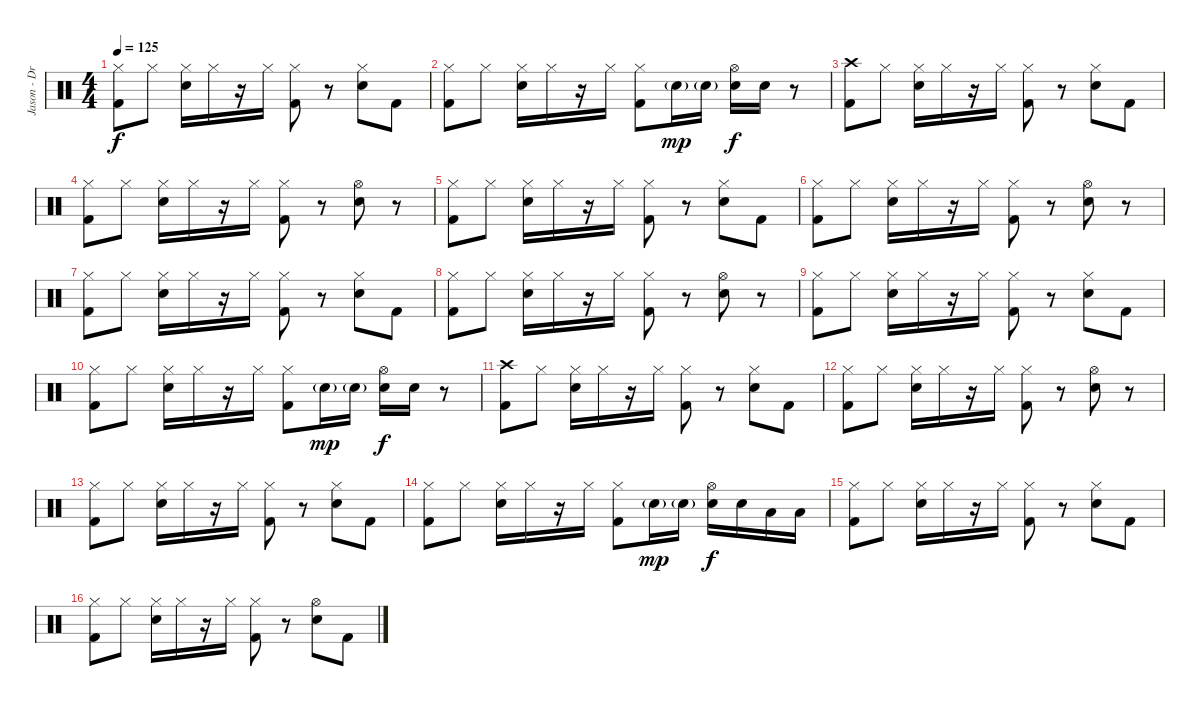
\track ("Jason - Drums" "Jason - Dr") {instrument percussion}
\staff {score}
\articulation defaults
\ts (4 4)
\tempo 125
\clef neutral
\ks c
("Hi-Hat (closed)" "Kick (hit) 2").8{dy f} "Hi-Hat (closed)".8 ("Hi-Hat (closed)" "Electric Snare (hit)").16 "Hi-Hat (closed)".16 r.16 "Hi-Hat (closed)".16 ("Hi-Hat (closed)" "Kick (hit) 2").8 r.8 ("Hi-Hat (closed)" "Electric Snare (hit)").8 "Kick (hit) 2".8 |
("Hi-Hat (closed)" "Kick (hit) 2").8 "Hi-Hat (closed)".8 ("Hi-Hat (closed)" "Electric Snare (hit)").16 "Hi-Hat (closed)".16 r.16 "Hi-Hat (closed)".16 ("Hi-Hat (closed)" "Kick (hit) 2").8 "Electric Snare (hit)"{g}.16{dy mp} "Electric Snare (hit)"{g}.16 ("Hi-Hat (open)" "Electric Snare (hit)").16{dy f} "Electric Snare (hit)".16 r.8 |
("Crash high (hit)" "Kick (hit) 2").8 "Hi-Hat (closed)".8 ("Hi-Hat (closed)" "Electric Snare (hit)").16 "Hi-Hat (closed)".16 r.16 "Hi-Hat (closed)".16 ("Hi-Hat (closed)" "Kick (hit) 2").8 r.8 ("Hi-Hat (closed)" "Electric Snare (hit)").8 "Kick (hit) 2".8 |
("Hi-Hat (closed)" "Kick (hit) 2").8 "Hi-Hat (closed)".8 ("Hi-Hat (closed)" "Electric Snare (hit)").16 "Hi-Hat (closed)".16 r.16 "Hi-Hat (closed)".16 ("Hi-Hat (closed)" "Kick (hit) 2").8 r.8 ("Hi-Hat (open)" "Electric Snare (hit)").8 r.8 |
("Hi-Hat (closed)" "Kick (hit) 2").8 "Hi-Hat (closed)".8 ("Hi-Hat (closed)" "Electric Snare (hit)").16 "Hi-Hat (closed)".16 r.16 "Hi-Hat (closed)".16 ("Hi-Hat (closed)" "Kick (hit) 2").8 r.8 ("Hi-Hat (closed)" "Electric Snare (hit)").8 "Kick (hit) 2".8 |
("Hi-Hat (closed)" "Kick (hit) 2").8 "Hi-Hat (closed)".8 ("Hi-Hat (closed)" "Electric Snare (hit)").16 "Hi-Hat (closed)".16 r.16 "Hi-Hat (closed)".16 ("Hi-Hat (closed)" "Kick (hit) 2").8 r.8 ("Hi-Hat (open)" "Electric Snare (hit)").8 r.8 |
("Hi-Hat (closed)" "Kick (hit) 2").8 "Hi-Hat (closed)".8 ("Hi-Hat (closed)" "Electric Snare (hit)").16 "Hi-Hat (closed)".16 r.16 "Hi-Hat (closed)".16 ("Hi-Hat (closed)" "Kick (hit) 2").8 r.8 ("Hi-Hat (closed)" "Electric Snare (hit)").8 "Kick (hit) 2".8 |
("Hi-Hat (closed)" "Kick (hit) 2").8 "Hi-Hat (closed)".8 ("Hi-Hat (closed)" "Electric Snare (hit)").16 "Hi-Hat (closed)".16 r.16 "Hi-Hat (closed)".16 ("Hi-Hat (closed)" "Kick (hit) 2").8 r.8 ("Hi-Hat (open)" "Electric Snare (hit)").8 r.8 |
("Hi-Hat (closed)" "Kick (hit) 2").8 "Hi-Hat (closed)".8 ("Hi-Hat (closed)" "Electric Snare (hit)").16 "Hi-Hat (closed)".16 r.16 "Hi-Hat (closed)".16 ("Hi-Hat (closed)" "Kick (hit) 2").8 r.8 ("Hi-Hat (closed)" "Electric Snare (hit)").8 "Kick (hit) 2".8 |
("Hi-Hat (closed)" "Kick (hit) 2").8 "Hi-Hat (closed)".8 ("Hi-Hat (closed)" "Electric Snare (hit)").16 "Hi-Hat (closed)".16 r.16 "Hi-Hat (closed)".16 ("Hi-Hat (closed)" "Kick (hit) 2").8 "Electric Snare (hit)"{g}.16{dy mp} "Electric Snare (hit)"{g}.16 ("Hi-Hat (open)" "Electric Snare (hit)").16{dy f} "Electric Snare (hit)".16 r.8 |
("Crash high (hit)" "Kick (hit) 2").8 "Hi-Hat (closed)".8 ("Hi-Hat (closed)" "Electric Snare (hit)").16 "Hi-Hat (closed)".16 r.16 "Hi-Hat (closed)".16 ("Hi-Hat (closed)" "Kick (hit) 2").8 r.8 ("Hi-Hat (closed)" "Electric Snare (hit)").8 "Kick (hit) 2".8 |
("Hi-Hat (closed)" "Kick (hit) 2").8 "Hi-Hat (closed)".8 ("Hi-Hat (closed)" "Electric Snare (hit)").16 "Hi-Hat (closed)".16 r.16 "Hi-Hat (closed)".16 ("Hi-Hat (closed)" "Kick (hit) 2").8 r.8 ("Hi-Hat (open)" "Electric Snare (hit)").8 r.8 |
("Hi-Hat (closed)" "Kick (hit) 2").8 "Hi-Hat (closed)".8 ("Hi-Hat (closed)" "Electric Snare (hit)").16 "Hi-Hat (closed)".16 r.16 "Hi-Hat (closed)".16 ("Hi-Hat (closed)" "Kick (hit) 2").8 r.8 ("Hi-Hat (closed)" "Electric Snare (hit)").8 "Kick (hit) 2".8 |
("Hi-Hat (closed)" "Kick (hit) 2").8 "Hi-Hat (closed)".8 ("Hi-Hat (closed)" "Electric Snare (hit)").16 "Hi-Hat (closed)".16 r.16 "Hi-Hat (closed)".16 ("Hi-Hat (closed)" "Kick (hit) 2").8 "Electric Snare (hit)"{g}.16{dy mp} "Electric Snare (hit)"{g}.16 ("Hi-Hat (open)" "Electric Snare (hit)").16{dy f} "Electric Snare (hit)".16 "Low Tom (hit)".16 "Low Tom (hit)".16 |
("Hi-Hat (closed)" "Kick (hit) 2").8 "Hi-Hat (closed)".8 ("Hi-Hat (closed)" "Electric Snare (hit)").16 "Hi-Hat (closed)".16 r.16 "Hi-Hat (closed)".16 ("Hi-Hat (closed)" "Kick (hit) 2").8 r.8 ("Hi-Hat (closed)" "Electric Snare (hit)").8 "Kick (hit) 2".8 |
("Hi-Hat (closed)" "Kick (hit) 2").8 "Hi-Hat (closed)".8 ("Hi-Hat (closed)" "Electric Snare (hit)").16 "Hi-Hat (closed)".16 r.16 "Hi-Hat (closed)".16 ("Hi-Hat (closed)" "Kick (hit) 2").8 r.8 ("Hi-Hat (open)" "Electric Snare (hit)").8 "Kick (hit) 2".8
